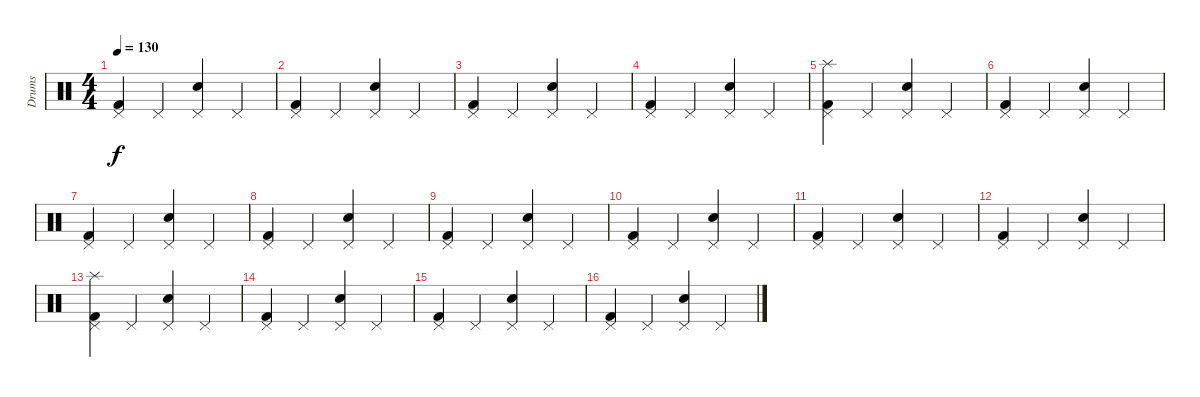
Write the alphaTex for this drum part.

\track ("Drums" "Drums") {instrument percussion}
\staff {score}
\articulation defaults
\ts (4 4)
\tempo 130
\clef neutral
\ks c
("Pedal Hi-Hat (hit)" "Kick (hit) 2").4{dy f} "Pedal Hi-Hat (hit)".4 ("Pedal Hi-Hat (hit)" "Snare (hit) 2").4 "Pedal Hi-Hat (hit)".4 |
("Pedal Hi-Hat (hit)" "Kick (hit) 2").4 "Pedal Hi-Hat (hit)".4 ("Pedal Hi-Hat (hit)" "Snare (hit) 2").4 "Pedal Hi-Hat (hit)".4 |
("Pedal Hi-Hat (hit)" "Kick (hit) 2").4 "Pedal Hi-Hat (hit)".4 ("Pedal Hi-Hat (hit)" "Snare (hit) 2").4 "Pedal Hi-Hat (hit)".4 |
("Pedal Hi-Hat (hit)" "Kick (hit) 2").4 "Pedal Hi-Hat (hit)".4 ("Pedal Hi-Hat (hit)" "Snare (hit) 2").4 "Pedal Hi-Hat (hit)".4 |
("Pedal Hi-Hat (hit)" "Splash (hit)" "Kick (hit) 2").4 "Pedal Hi-Hat (hit)".4 ("Pedal Hi-Hat (hit)" "Snare (hit) 2").4 "Pedal Hi-Hat (hit)".4 |
("Pedal Hi-Hat (hit)" "Kick (hit) 2").4 "Pedal Hi-Hat (hit)".4 ("Pedal Hi-Hat (hit)" "Snare (hit) 2").4 "Pedal Hi-Hat (hit)".4 |
("Pedal Hi-Hat (hit)" "Kick (hit) 2").4 "Pedal Hi-Hat (hit)".4 ("Pedal Hi-Hat (hit)" "Snare (hit) 2").4 "Pedal Hi-Hat (hit)".4 |
("Pedal Hi-Hat (hit)" "Kick (hit) 2").4 "Pedal Hi-Hat (hit)".4 ("Pedal Hi-Hat (hit)" "Snare (hit) 2").4 "Pedal Hi-Hat (hit)".4 |
("Pedal Hi-Hat (hit)" "Kick (hit) 2").4 "Pedal Hi-Hat (hit)".4 ("Pedal Hi-Hat (hit)" "Snare (hit) 2").4 "Pedal Hi-Hat (hit)".4 |
("Pedal Hi-Hat (hit)" "Kick (hit) 2").4 "Pedal Hi-Hat (hit)".4 ("Pedal Hi-Hat (hit)" "Snare (hit) 2").4 "Pedal Hi-Hat (hit)".4 |
("Pedal Hi-Hat (hit)" "Kick (hit) 2").4 "Pedal Hi-Hat (hit)".4 ("Pedal Hi-Hat (hit)" "Snare (hit) 2").4 "Pedal Hi-Hat (hit)".4 |
("Pedal Hi-Hat (hit)" "Kick (hit) 2").4 "Pedal Hi-Hat (hit)".4 ("Pedal Hi-Hat (hit)" "Snare (hit) 2").4 "Pedal Hi-Hat (hit)".4 |
("Pedal Hi-Hat (hit)" "Splash (hit)" "Kick (hit) 2").4 "Pedal Hi-Hat (hit)".4 ("Pedal Hi-Hat (hit)" "Snare (hit) 2").4 "Pedal Hi-Hat (hit)".4 |
("Pedal Hi-Hat (hit)" "Kick (hit) 2").4 "Pedal Hi-Hat (hit)".4 ("Pedal Hi-Hat (hit)" "Snare (hit) 2").4 "Pedal Hi-Hat (hit)".4 |
("Pedal Hi-Hat (hit)" "Kick (hit) 2").4 "Pedal Hi-Hat (hit)".4 ("Pedal Hi-Hat (hit)" "Snare (hit) 2").4 "Pedal Hi-Hat (hit)".4 |
("Pedal Hi-Hat (hit)" "Kick (hit) 2").4 "Pedal Hi-Hat (hit)".4 ("Pedal Hi-Hat (hit)" "Snare (hit) 2").4 "Pedal Hi-Hat (hit)".4
